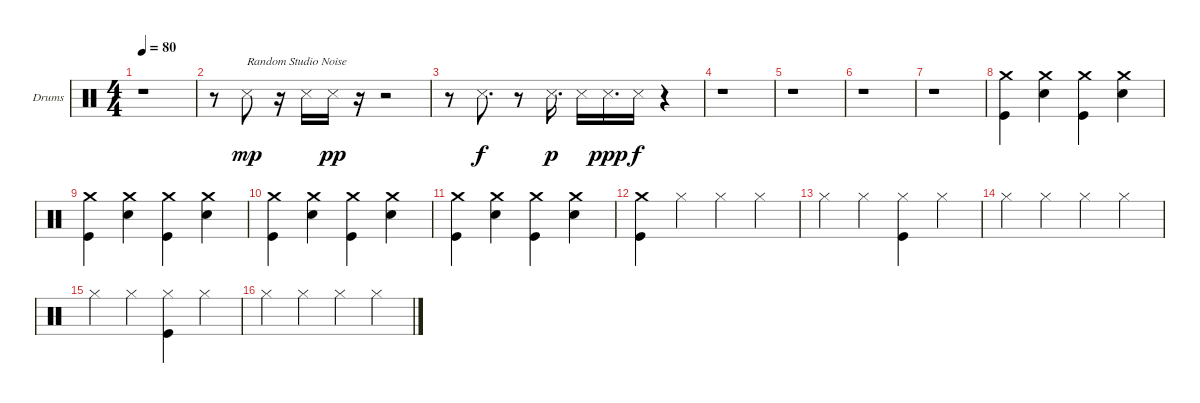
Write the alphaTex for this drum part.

\bracketExtendMode groupsimilarinstruments
\firstSystemTrackNameOrientation horizontal
\otherSystemsTrackNameOrientation horizontal
\track ("Drumkit" "Drums") {instrument percussion}
\staff {score}
\articulation defaults
\ts (4 4)
\tempo 80
\clef neutral
\ks c
r.1{dy mp} |
r.8 "Snare (side stick) 3".8{txt "Random Studio Noise"} r.16 "Snare (side stick) 3".16 "Snare (side stick) 3".16{dy pp} r.16 r.2 |
r.8 "Snare (side stick) 3".8{d dy f} r.8 "Snare (side stick) 3".16{d dy p} "Snare (side stick) 3".16 "Snare (side stick) 3".16{d dy ppp} "Snare (side stick) 3".16{dy f} r.4 |
r.1 |
r.1 |
r.1 |
r.1 |
("Crash medium (hit)" "Kick (hit)").4 ("Crash medium (hit)" "Snare (hit) 2").4 ("Crash medium (hit)" "Kick (hit)").4 ("Crash medium (hit)" "Snare (hit) 2").4 |
("Crash medium (hit)" "Kick (hit)").4 ("Crash medium (hit)" "Snare (hit) 2").4 ("Crash medium (hit)" "Kick (hit)").4 ("Crash medium (hit)" "Snare (hit) 2").4 |
("Crash medium (hit)" "Kick (hit)").4 ("Crash medium (hit)" "Snare (hit) 2").4 ("Crash medium (hit)" "Kick (hit)").4 ("Crash medium (hit)" "Snare (hit) 2").4 |
("Crash medium (hit)" "Kick (hit)").4 ("Crash medium (hit)" "Snare (hit) 2").4 ("Crash medium (hit)" "Kick (hit)").4 ("Crash medium (hit)" "Snare (hit) 2").4 |
("Crash medium (hit)" "Kick (hit)").4 "Hi-Hat (closed)".4 "Hi-Hat (closed)".4 "Hi-Hat (closed)".4 |
"Hi-Hat (closed)".4 "Hi-Hat (closed)".4 ("Hi-Hat (closed)" "Kick (hit)").4 "Hi-Hat (closed)".4 |
"Hi-Hat (closed)".4 "Hi-Hat (closed)".4 "Hi-Hat (closed)".4 "Hi-Hat (closed)".4 |
"Hi-Hat (closed)".4 "Hi-Hat (closed)".4 ("Hi-Hat (closed)" "Kick (hit)").4 "Hi-Hat (closed)".4 |
"Hi-Hat (closed)".4 "Hi-Hat (closed)".4 "Hi-Hat (closed)".4 "Hi-Hat (closed)".4
